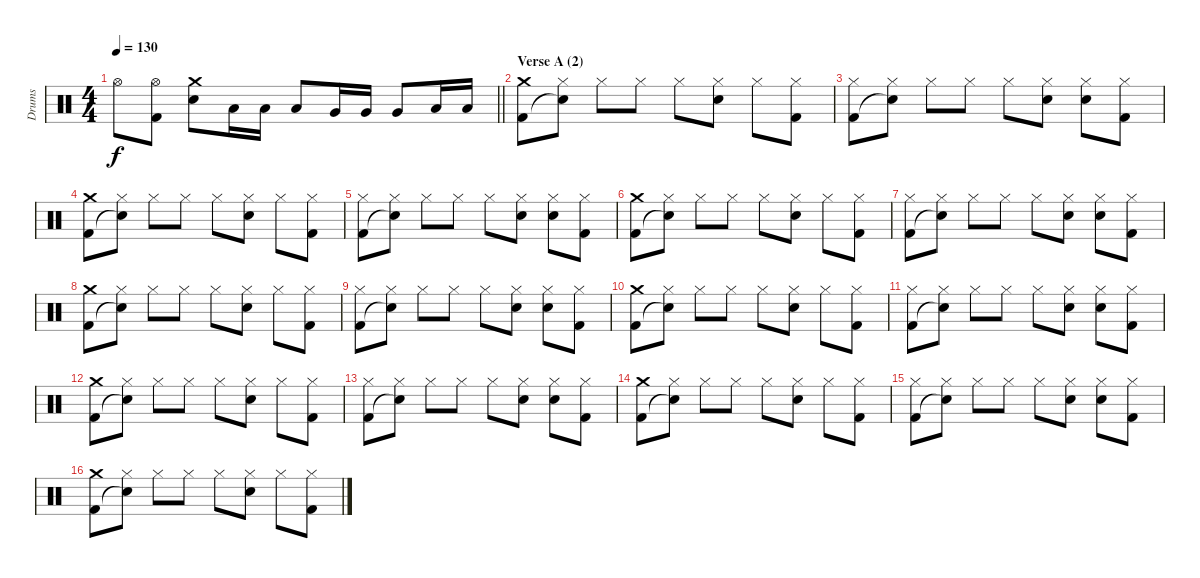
\track ("Drums" "Drums") {instrument percussion}
\staff {score}
\articulation defaults
\ts (4 4)
\tempo 130
\clef neutral
\barLineRight lightlight
\ks c "Hi-Hat (open)".8{dy f}
("Hi-Hat (open)" "Kick (hit) 2").8 ("Crash medium (hit)" "Electric Snare (hit)").8 "Low Tom (hit)".16 "Low Tom (hit)".16 "Low Tom (hit)".8 "Very Low Tom (hit)".16 "Very Low Tom (hit)".16 "Very Low Tom (hit)".8 "Low Floor Tom (hit)".16 "Low Floor Tom (hit)".16 |
\section ("" "Verse A (2)")
("Crash medium (hit)" "Kick (hit) 2").8 ("Hi-Hat (closed)" "Snare (hit)"{t}).8 "Hi-Hat (closed)".8 "Hi-Hat (closed)".8 "Hi-Hat (closed)".8 ("Hi-Hat (closed)" "Electric Snare (hit)").8 "Hi-Hat (closed)".8 ("Hi-Hat (closed)" "Kick (hit) 2").8 |
("Hi-Hat (closed)" "Kick (hit) 2").8 ("Hi-Hat (closed)" "Snare (hit)"{t}).8 "Hi-Hat (closed)".8 "Hi-Hat (closed)".8 "Hi-Hat (closed)".8 ("Hi-Hat (closed)" "Electric Snare (hit)").8 ("Hi-Hat (closed)" "Electric Snare (hit)").8 ("Hi-Hat (closed)" "Kick (hit) 2").8 |
("Crash medium (hit)" "Kick (hit) 2").8 ("Hi-Hat (closed)" "Snare (hit)"{t}).8 "Hi-Hat (closed)".8 "Hi-Hat (closed)".8 "Hi-Hat (closed)".8 ("Hi-Hat (closed)" "Electric Snare (hit)").8 "Hi-Hat (closed)".8 ("Hi-Hat (closed)" "Kick (hit) 2").8 |
("Hi-Hat (closed)" "Kick (hit) 2").8 ("Hi-Hat (closed)" "Snare (hit)"{t}).8 "Hi-Hat (closed)".8 "Hi-Hat (closed)".8 "Hi-Hat (closed)".8 ("Hi-Hat (closed)" "Electric Snare (hit)").8 ("Hi-Hat (closed)" "Electric Snare (hit)").8 ("Hi-Hat (closed)" "Kick (hit) 2").8 |
("Crash medium (hit)" "Kick (hit) 2").8 ("Hi-Hat (closed)" "Snare (hit)"{t}).8 "Hi-Hat (closed)".8 "Hi-Hat (closed)".8 "Hi-Hat (closed)".8 ("Hi-Hat (closed)" "Electric Snare (hit)").8 "Hi-Hat (closed)".8 ("Hi-Hat (closed)" "Kick (hit) 2").8 |
("Hi-Hat (closed)" "Kick (hit) 2").8 ("Hi-Hat (closed)" "Snare (hit)"{t}).8 "Hi-Hat (closed)".8 "Hi-Hat (closed)".8 "Hi-Hat (closed)".8 ("Hi-Hat (closed)" "Electric Snare (hit)").8 ("Hi-Hat (closed)" "Electric Snare (hit)").8 ("Hi-Hat (closed)" "Kick (hit) 2").8 |
("Crash medium (hit)" "Kick (hit) 2").8 ("Hi-Hat (closed)" "Snare (hit)"{t}).8 "Hi-Hat (closed)".8 "Hi-Hat (closed)".8 "Hi-Hat (closed)".8 ("Hi-Hat (closed)" "Electric Snare (hit)").8 "Hi-Hat (closed)".8 ("Hi-Hat (closed)" "Kick (hit) 2").8 |
("Hi-Hat (closed)" "Kick (hit) 2").8 ("Hi-Hat (closed)" "Snare (hit)"{t}).8 "Hi-Hat (closed)".8 "Hi-Hat (closed)".8 "Hi-Hat (closed)".8 ("Hi-Hat (closed)" "Electric Snare (hit)").8 ("Hi-Hat (closed)" "Electric Snare (hit)").8 ("Hi-Hat (closed)" "Kick (hit) 2").8 |
("Crash medium (hit)" "Kick (hit) 2").8 ("Hi-Hat (closed)" "Snare (hit)"{t}).8 "Hi-Hat (closed)".8 "Hi-Hat (closed)".8 "Hi-Hat (closed)".8 ("Hi-Hat (closed)" "Electric Snare (hit)").8 "Hi-Hat (closed)".8 ("Hi-Hat (closed)" "Kick (hit) 2").8 |
("Hi-Hat (closed)" "Kick (hit) 2").8 ("Hi-Hat (closed)" "Snare (hit)"{t}).8 "Hi-Hat (closed)".8 "Hi-Hat (closed)".8 "Hi-Hat (closed)".8 ("Hi-Hat (closed)" "Electric Snare (hit)").8 ("Hi-Hat (closed)" "Electric Snare (hit)").8 ("Hi-Hat (closed)" "Kick (hit) 2").8 |
("Crash medium (hit)" "Kick (hit) 2").8 ("Hi-Hat (closed)" "Snare (hit)"{t}).8 "Hi-Hat (closed)".8 "Hi-Hat (closed)".8 "Hi-Hat (closed)".8 ("Hi-Hat (closed)" "Electric Snare (hit)").8 "Hi-Hat (closed)".8 ("Hi-Hat (closed)" "Kick (hit) 2").8 |
("Hi-Hat (closed)" "Kick (hit) 2").8 ("Hi-Hat (closed)" "Snare (hit)"{t}).8 "Hi-Hat (closed)".8 "Hi-Hat (closed)".8 "Hi-Hat (closed)".8 ("Hi-Hat (closed)" "Electric Snare (hit)").8 ("Hi-Hat (closed)" "Electric Snare (hit)").8 ("Hi-Hat (closed)" "Kick (hit) 2").8 |
("Crash medium (hit)" "Kick (hit) 2").8 ("Hi-Hat (closed)" "Snare (hit)"{t}).8 "Hi-Hat (closed)".8 "Hi-Hat (closed)".8 "Hi-Hat (closed)".8 ("Hi-Hat (closed)" "Electric Snare (hit)").8 "Hi-Hat (closed)".8 ("Hi-Hat (closed)" "Kick (hit) 2").8 |
("Hi-Hat (closed)" "Kick (hit) 2").8 ("Hi-Hat (closed)" "Snare (hit)"{t}).8 "Hi-Hat (closed)".8 "Hi-Hat (closed)".8 "Hi-Hat (closed)".8 ("Hi-Hat (closed)" "Electric Snare (hit)").8 ("Hi-Hat (closed)" "Electric Snare (hit)").8 ("Hi-Hat (closed)" "Kick (hit) 2").8 |
("Crash medium (hit)" "Kick (hit) 2").8 ("Hi-Hat (closed)" "Snare (hit)"{t}).8 "Hi-Hat (closed)".8 "Hi-Hat (closed)".8 "Hi-Hat (closed)".8 ("Hi-Hat (closed)" "Electric Snare (hit)").8 "Hi-Hat (closed)".8 ("Hi-Hat (closed)" "Kick (hit) 2").8
